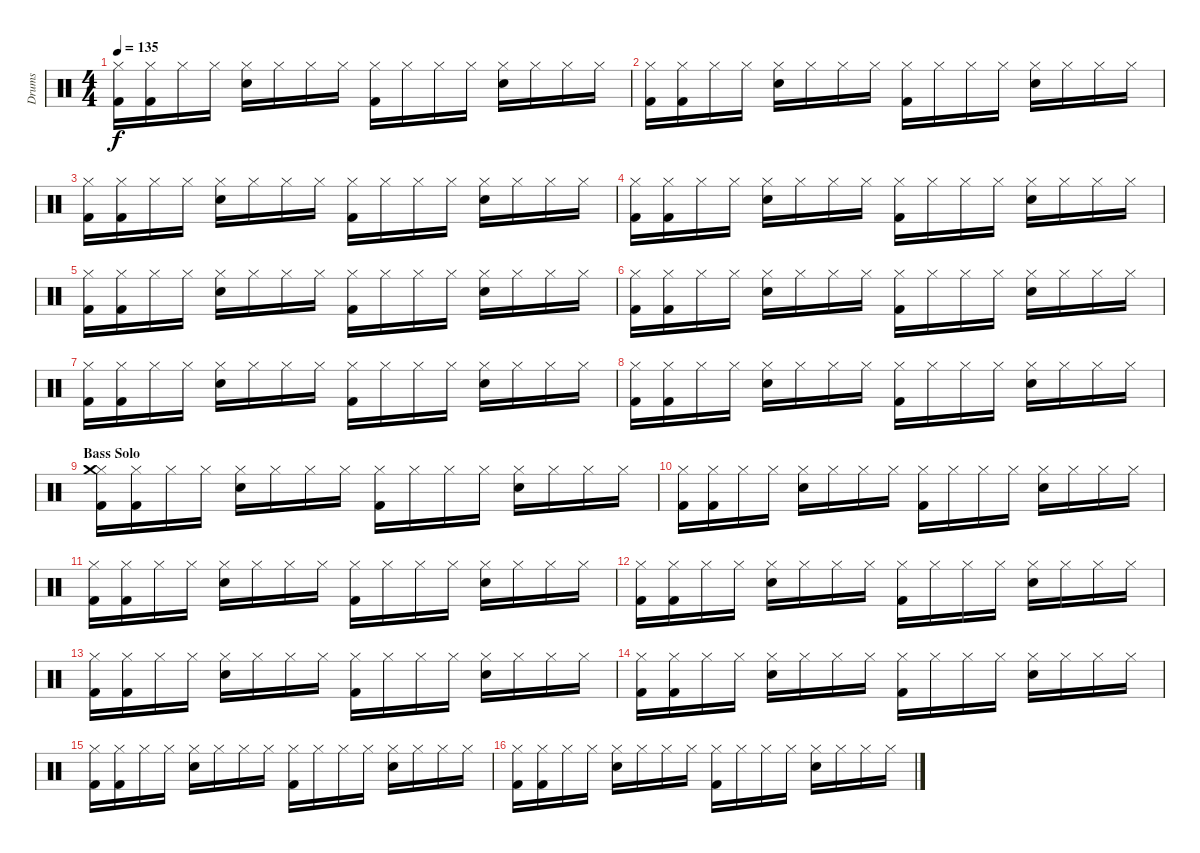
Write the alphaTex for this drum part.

\track ("Drums" "Drums") {instrument percussion}
\staff {score}
\articulation defaults
\ts (4 4)
\tempo 135
\clef neutral
\ks c
("Hi-Hat (closed)" "Kick (hit) 2").16{dy f} ("Hi-Hat (closed)" "Kick (hit) 2").16 "Hi-Hat (closed)".16 "Hi-Hat (closed)".16 ("Hi-Hat (closed)" "Snare (hit) 2").16 "Hi-Hat (closed)".16 "Hi-Hat (closed)".16 "Hi-Hat (closed)".16 ("Hi-Hat (closed)" "Kick (hit) 2").16 "Hi-Hat (closed)".16 "Hi-Hat (closed)".16 "Hi-Hat (closed)".16 ("Hi-Hat (closed)" "Snare (hit) 2").16 "Hi-Hat (closed)".16 "Hi-Hat (closed)".16 "Hi-Hat (closed)".16 |
("Hi-Hat (closed)" "Kick (hit) 2").16 ("Hi-Hat (closed)" "Kick (hit) 2").16 "Hi-Hat (closed)".16 "Hi-Hat (closed)".16 ("Hi-Hat (closed)" "Snare (hit) 2").16 "Hi-Hat (closed)".16 "Hi-Hat (closed)".16 "Hi-Hat (closed)".16 ("Hi-Hat (closed)" "Kick (hit) 2").16 "Hi-Hat (closed)".16 "Hi-Hat (closed)".16 "Hi-Hat (closed)".16 ("Hi-Hat (closed)" "Snare (hit) 2").16 "Hi-Hat (closed)".16 "Hi-Hat (closed)".16 "Hi-Hat (closed)".16 |
("Hi-Hat (closed)" "Kick (hit) 2").16 ("Hi-Hat (closed)" "Kick (hit) 2").16 "Hi-Hat (closed)".16 "Hi-Hat (closed)".16 ("Hi-Hat (closed)" "Snare (hit) 2").16 "Hi-Hat (closed)".16 "Hi-Hat (closed)".16 "Hi-Hat (closed)".16 ("Hi-Hat (closed)" "Kick (hit) 2").16 "Hi-Hat (closed)".16 "Hi-Hat (closed)".16 "Hi-Hat (closed)".16 ("Hi-Hat (closed)" "Snare (hit) 2").16 "Hi-Hat (closed)".16 "Hi-Hat (closed)".16 "Hi-Hat (closed)".16 |
("Hi-Hat (closed)" "Kick (hit) 2").16 ("Hi-Hat (closed)" "Kick (hit) 2").16 "Hi-Hat (closed)".16 "Hi-Hat (closed)".16 ("Hi-Hat (closed)" "Snare (hit) 2").16 "Hi-Hat (closed)".16 "Hi-Hat (closed)".16 "Hi-Hat (closed)".16 ("Hi-Hat (closed)" "Kick (hit) 2").16 "Hi-Hat (closed)".16 "Hi-Hat (closed)".16 "Hi-Hat (closed)".16 ("Hi-Hat (closed)" "Snare (hit) 2").16 "Hi-Hat (closed)".16 "Hi-Hat (closed)".16 "Hi-Hat (closed)".16 |
("Hi-Hat (closed)" "Kick (hit) 2").16 ("Hi-Hat (closed)" "Kick (hit) 2").16 "Hi-Hat (closed)".16 "Hi-Hat (closed)".16 ("Hi-Hat (closed)" "Snare (hit) 2").16 "Hi-Hat (closed)".16 "Hi-Hat (closed)".16 "Hi-Hat (closed)".16 ("Hi-Hat (closed)" "Kick (hit) 2").16 "Hi-Hat (closed)".16 "Hi-Hat (closed)".16 "Hi-Hat (closed)".16 ("Hi-Hat (closed)" "Snare (hit) 2").16 "Hi-Hat (closed)".16 "Hi-Hat (closed)".16 "Hi-Hat (closed)".16 |
("Hi-Hat (closed)" "Kick (hit) 2").16 ("Hi-Hat (closed)" "Kick (hit) 2").16 "Hi-Hat (closed)".16 "Hi-Hat (closed)".16 ("Hi-Hat (closed)" "Snare (hit) 2").16 "Hi-Hat (closed)".16 "Hi-Hat (closed)".16 "Hi-Hat (closed)".16 ("Hi-Hat (closed)" "Kick (hit) 2").16 "Hi-Hat (closed)".16 "Hi-Hat (closed)".16 "Hi-Hat (closed)".16 ("Hi-Hat (closed)" "Snare (hit) 2").16 "Hi-Hat (closed)".16 "Hi-Hat (closed)".16 "Hi-Hat (closed)".16 |
("Hi-Hat (closed)" "Kick (hit) 2").16 ("Hi-Hat (closed)" "Kick (hit) 2").16 "Hi-Hat (closed)".16 "Hi-Hat (closed)".16 ("Hi-Hat (closed)" "Snare (hit) 2").16 "Hi-Hat (closed)".16 "Hi-Hat (closed)".16 "Hi-Hat (closed)".16 ("Hi-Hat (closed)" "Kick (hit) 2").16 "Hi-Hat (closed)".16 "Hi-Hat (closed)".16 "Hi-Hat (closed)".16 ("Hi-Hat (closed)" "Snare (hit) 2").16 "Hi-Hat (closed)".16 "Hi-Hat (closed)".16 "Hi-Hat (closed)".16 |
("Hi-Hat (closed)" "Kick (hit) 2").16 ("Hi-Hat (closed)" "Kick (hit) 2").16 "Hi-Hat (closed)".16 "Hi-Hat (closed)".16 ("Hi-Hat (closed)" "Snare (hit) 2").16 "Hi-Hat (closed)".16 "Hi-Hat (closed)".16 "Hi-Hat (closed)".16 ("Hi-Hat (closed)" "Kick (hit) 2").16 "Hi-Hat (closed)".16 "Hi-Hat (closed)".16 "Hi-Hat (closed)".16 ("Hi-Hat (closed)" "Snare (hit) 2").16 "Hi-Hat (closed)".16 "Hi-Hat (closed)".16 "Hi-Hat (closed)".16 |
\section ("" "Bass Solo")
("Hi-Hat (closed)" "Kick (hit) 2" "Crash medium (hit)").16 ("Hi-Hat (closed)" "Kick (hit) 2").16 "Hi-Hat (closed)".16 "Hi-Hat (closed)".16 ("Hi-Hat (closed)" "Snare (hit) 2").16 "Hi-Hat (closed)".16 "Hi-Hat (closed)".16 "Hi-Hat (closed)".16 ("Hi-Hat (closed)" "Kick (hit) 2").16 "Hi-Hat (closed)".16 "Hi-Hat (closed)".16 "Hi-Hat (closed)".16 ("Hi-Hat (closed)" "Snare (hit) 2").16 "Hi-Hat (closed)".16 "Hi-Hat (closed)".16 "Hi-Hat (closed)".16 |
("Hi-Hat (closed)" "Kick (hit) 2").16 ("Hi-Hat (closed)" "Kick (hit) 2").16 "Hi-Hat (closed)".16 "Hi-Hat (closed)".16 ("Hi-Hat (closed)" "Snare (hit) 2").16 "Hi-Hat (closed)".16 "Hi-Hat (closed)".16 "Hi-Hat (closed)".16 ("Hi-Hat (closed)" "Kick (hit) 2").16 "Hi-Hat (closed)".16 "Hi-Hat (closed)".16 "Hi-Hat (closed)".16 ("Hi-Hat (closed)" "Snare (hit) 2").16 "Hi-Hat (closed)".16 "Hi-Hat (closed)".16 "Hi-Hat (closed)".16 |
("Hi-Hat (closed)" "Kick (hit) 2").16 ("Hi-Hat (closed)" "Kick (hit) 2").16 "Hi-Hat (closed)".16 "Hi-Hat (closed)".16 ("Hi-Hat (closed)" "Snare (hit) 2").16 "Hi-Hat (closed)".16 "Hi-Hat (closed)".16 "Hi-Hat (closed)".16 ("Hi-Hat (closed)" "Kick (hit) 2").16 "Hi-Hat (closed)".16 "Hi-Hat (closed)".16 "Hi-Hat (closed)".16 ("Hi-Hat (closed)" "Snare (hit) 2").16 "Hi-Hat (closed)".16 "Hi-Hat (closed)".16 "Hi-Hat (closed)".16 |
("Hi-Hat (closed)" "Kick (hit) 2").16 ("Hi-Hat (closed)" "Kick (hit) 2").16 "Hi-Hat (closed)".16 "Hi-Hat (closed)".16 ("Hi-Hat (closed)" "Snare (hit) 2").16 "Hi-Hat (closed)".16 "Hi-Hat (closed)".16 "Hi-Hat (closed)".16 ("Hi-Hat (closed)" "Kick (hit) 2").16 "Hi-Hat (closed)".16 "Hi-Hat (closed)".16 "Hi-Hat (closed)".16 ("Hi-Hat (closed)" "Snare (hit) 2").16 "Hi-Hat (closed)".16 "Hi-Hat (closed)".16 "Hi-Hat (closed)".16 |
("Hi-Hat (closed)" "Kick (hit) 2").16 ("Hi-Hat (closed)" "Kick (hit) 2").16 "Hi-Hat (closed)".16 "Hi-Hat (closed)".16 ("Hi-Hat (closed)" "Snare (hit) 2").16 "Hi-Hat (closed)".16 "Hi-Hat (closed)".16 "Hi-Hat (closed)".16 ("Hi-Hat (closed)" "Kick (hit) 2").16 "Hi-Hat (closed)".16 "Hi-Hat (closed)".16 "Hi-Hat (closed)".16 ("Hi-Hat (closed)" "Snare (hit) 2").16 "Hi-Hat (closed)".16 "Hi-Hat (closed)".16 "Hi-Hat (closed)".16 |
("Hi-Hat (closed)" "Kick (hit) 2").16 ("Hi-Hat (closed)" "Kick (hit) 2").16 "Hi-Hat (closed)".16 "Hi-Hat (closed)".16 ("Hi-Hat (closed)" "Snare (hit) 2").16 "Hi-Hat (closed)".16 "Hi-Hat (closed)".16 "Hi-Hat (closed)".16 ("Hi-Hat (closed)" "Kick (hit) 2").16 "Hi-Hat (closed)".16 "Hi-Hat (closed)".16 "Hi-Hat (closed)".16 ("Hi-Hat (closed)" "Snare (hit) 2").16 "Hi-Hat (closed)".16 "Hi-Hat (closed)".16 "Hi-Hat (closed)".16 |
("Hi-Hat (closed)" "Kick (hit) 2").16 ("Hi-Hat (closed)" "Kick (hit) 2").16 "Hi-Hat (closed)".16 "Hi-Hat (closed)".16 ("Hi-Hat (closed)" "Snare (hit) 2").16 "Hi-Hat (closed)".16 "Hi-Hat (closed)".16 "Hi-Hat (closed)".16 ("Hi-Hat (closed)" "Kick (hit) 2").16 "Hi-Hat (closed)".16 "Hi-Hat (closed)".16 "Hi-Hat (closed)".16 ("Hi-Hat (closed)" "Snare (hit) 2").16 "Hi-Hat (closed)".16 "Hi-Hat (closed)".16 "Hi-Hat (closed)".16 |
("Hi-Hat (closed)" "Kick (hit) 2").16 ("Hi-Hat (closed)" "Kick (hit) 2").16 "Hi-Hat (closed)".16 "Hi-Hat (closed)".16 ("Hi-Hat (closed)" "Snare (hit) 2").16 "Hi-Hat (closed)".16 "Hi-Hat (closed)".16 "Hi-Hat (closed)".16 ("Hi-Hat (closed)" "Kick (hit) 2").16 "Hi-Hat (closed)".16 "Hi-Hat (closed)".16 "Hi-Hat (closed)".16 ("Hi-Hat (closed)" "Snare (hit) 2").16 "Hi-Hat (closed)".16 "Hi-Hat (closed)".16 "Hi-Hat (closed)".16
